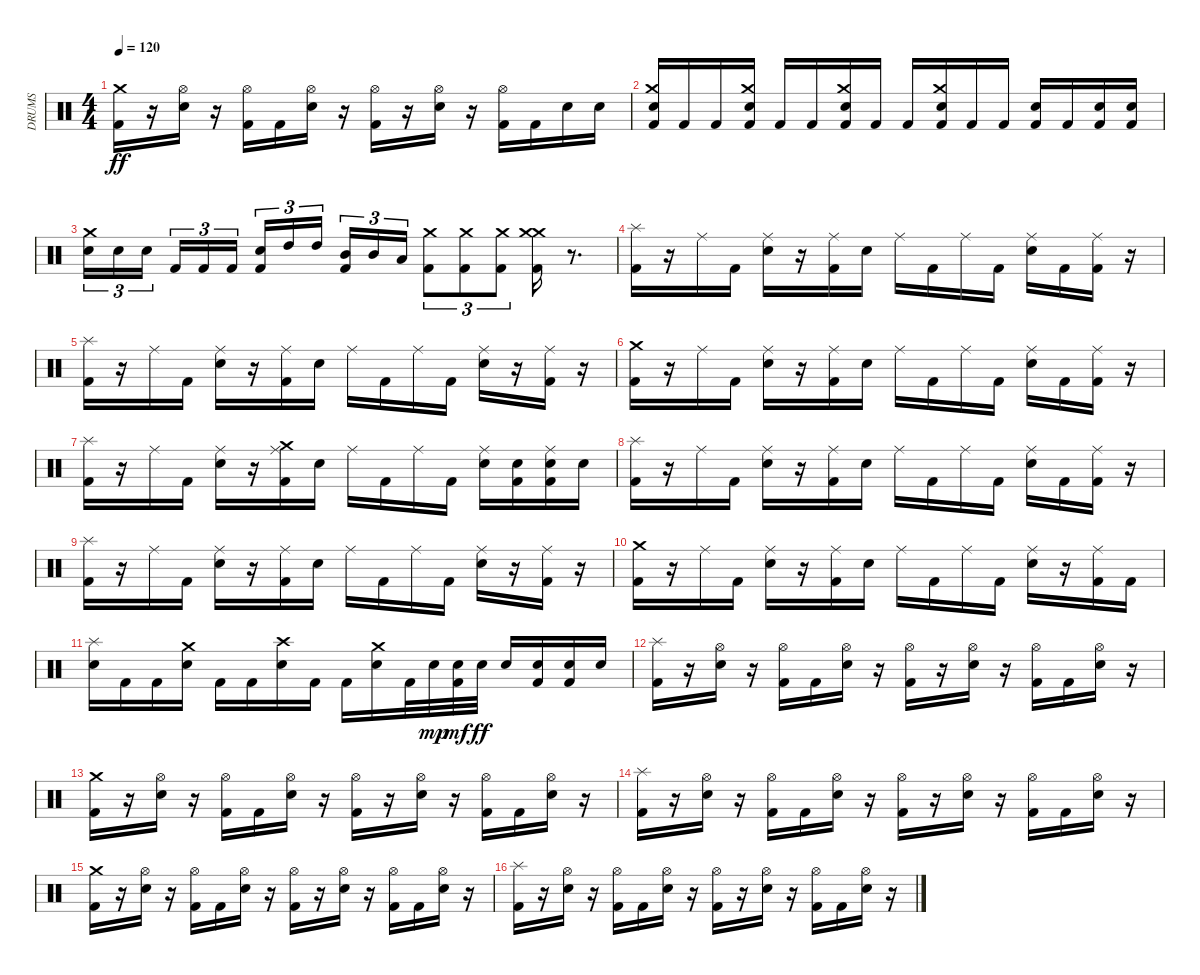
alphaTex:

\track ("DRUMS" "DRUMS") {instrument percussion}
\staff {score}
\articulation defaults
\ts (4 4)
\tempo 120
\clef neutral
\ks c
("Kick (hit) 2" "Crash medium (hit)").16{dy ff} r.16 ("Electric Snare (hit)" "Hi-Hat (open)").16 r.16 ("Kick (hit) 2" "Hi-Hat (open)").16 "Kick (hit) 2".16 ("Electric Snare (hit)" "Hi-Hat (open)").16 r.16 ("Kick (hit) 2" "Hi-Hat (open)").16 r.16 ("Electric Snare (hit)" "Hi-Hat (open)").16 r.16 ("Kick (hit) 2" "Hi-Hat (open)").16 "Kick (hit) 2".16 "Electric Snare (hit)".16 "Electric Snare (hit)".16 |
("Kick (hit) 2" "Electric Snare (hit)" "Crash medium (hit)").16 "Kick (hit) 2".16 "Kick (hit) 2".16 ("Kick (hit) 2" "Electric Snare (hit)" "Crash medium (hit)").16 "Kick (hit) 2".16 "Kick (hit) 2".16 ("Kick (hit) 2" "Electric Snare (hit)" "Crash medium (hit)").16 "Kick (hit) 2".16 "Kick (hit) 2".16 ("Kick (hit) 2" "Electric Snare (hit)" "Crash medium (hit)").16 "Kick (hit) 2".16 "Kick (hit) 2".16 ("Kick (hit) 2" "Electric Snare (hit)").16 "Kick (hit) 2".16 ("Kick (hit) 2" "Electric Snare (hit)").16 ("Kick (hit) 2" "Electric Snare (hit)").16 |
("Electric Snare (hit)" "Crash medium (hit)").16{tu (3 2)} "Electric Snare (hit)".16{tu (3 2)} "Electric Snare (hit)".16{tu (3 2) beam splitsecondary} "Kick (hit) 2".16{tu (3 2)} "Kick (hit) 2".16{tu (3 2)} "Kick (hit) 2".16{tu (3 2)} ("Kick (hit) 2" "Electric Snare (hit)").16{tu (3 2)} "High Tom (hit)".16{tu (3 2)} "High Tom (hit)".16{tu (3 2) beam splitsecondary} ("Kick (hit) 2" "Mid Tom (hit)").16{tu (3 2)} "Mid Tom (hit)".16{tu (3 2)} "Low Floor Tom (hit)".16{tu (3 2)} ("Kick (hit) 2" "Crash medium (hit)").8{tu (3 2)} ("Kick (hit) 2" "Crash medium (hit)").8{tu (3 2)} ("Kick (hit) 2" "Crash medium (hit)").8{tu (3 2)} ("Kick (hit) 2" "Crash medium (hit)" "Crash medium (hit)").16 r.8{d} |
("Kick (hit) 2" "Splash (hit)").16 r.16 "Ride (middle)".16 "Kick (hit) 2".16 ("Ride (middle)" "Electric Snare (hit)").16 r.16 ("Ride (middle)" "Kick (hit) 2").16 "Electric Snare (hit)".16 "Ride (middle)".16 "Kick (hit) 2".16 "Ride (middle)".16 "Kick (hit) 2".16 ("Ride (middle)" "Electric Snare (hit)").16 "Kick (hit) 2".16 ("Ride (middle)" "Kick (hit) 2").16 r.16 |
("Kick (hit) 2" "Splash (hit)").16 r.16 "Ride (middle)".16 "Kick (hit) 2".16 ("Ride (middle)" "Electric Snare (hit)").16 r.16 ("Ride (middle)" "Kick (hit) 2").16 "Electric Snare (hit)".16 "Ride (middle)".16 "Kick (hit) 2".16 "Ride (middle)".16 "Kick (hit) 2".16 ("Ride (middle)" "Electric Snare (hit)").16 r.16 ("Ride (middle)" "Kick (hit) 2").16 r.16 |
("Kick (hit) 2" "Crash medium (hit)").16 r.16 "Ride (middle)".16 "Kick (hit) 2".16 ("Ride (middle)" "Electric Snare (hit)").16 r.16 ("Ride (middle)" "Kick (hit) 2").16 "Electric Snare (hit)".16 "Ride (middle)".16 "Kick (hit) 2".16 "Ride (middle)".16 "Kick (hit) 2".16 ("Ride (middle)" "Electric Snare (hit)").16 "Kick (hit) 2".16 ("Ride (middle)" "Kick (hit) 2").16 r.16 |
("Kick (hit) 2" "Splash (hit)").16 r.16 "Ride (middle)".16 "Kick (hit) 2".16 ("Ride (middle)" "Electric Snare (hit)").16 r.16 ("Ride (middle)" "Kick (hit) 2" "Crash medium (hit)").16 "Electric Snare (hit)".16 "Ride (middle)".16 "Kick (hit) 2".16 "Ride (middle)".16 "Kick (hit) 2".16 ("Ride (middle)" "Electric Snare (hit)").16 ("Kick (hit) 2" "Electric Snare (hit)").16 ("Ride (middle)" "Kick (hit) 2" "Electric Snare (hit)").16 "Electric Snare (hit)".16 |
("Kick (hit) 2" "Splash (hit)").16 r.16 "Ride (middle)".16 "Kick (hit) 2".16 ("Ride (middle)" "Electric Snare (hit)").16 r.16 ("Ride (middle)" "Kick (hit) 2").16 "Electric Snare (hit)".16 "Ride (middle)".16 "Kick (hit) 2".16 "Ride (middle)".16 "Kick (hit) 2".16 ("Ride (middle)" "Electric Snare (hit)").16 "Kick (hit) 2".16 ("Ride (middle)" "Kick (hit) 2").16 r.16 |
("Kick (hit) 2" "Splash (hit)").16 r.16 "Ride (middle)".16 "Kick (hit) 2".16 ("Ride (middle)" "Electric Snare (hit)").16 r.16 ("Ride (middle)" "Kick (hit) 2").16 "Electric Snare (hit)".16 "Ride (middle)".16 "Kick (hit) 2".16 "Ride (middle)".16 "Kick (hit) 2".16 ("Ride (middle)" "Electric Snare (hit)").16 r.16 ("Ride (middle)" "Kick (hit) 2").16 r.16 |
("Kick (hit) 2" "Crash medium (hit)").16 r.16 "Ride (middle)".16 "Kick (hit) 2".16 ("Ride (middle)" "Electric Snare (hit)").16 r.16 ("Ride (middle)" "Kick (hit) 2").16 "Electric Snare (hit)".16 "Ride (middle)".16 "Kick (hit) 2".16 "Ride (middle)".16 "Kick (hit) 2".16 ("Ride (middle)" "Electric Snare (hit)").16 r.16 ("Ride (middle)" "Kick (hit) 2").16 "Kick (hit) 2".16 |
("Electric Snare (hit)" "Splash (hit)").16 "Kick (hit) 2".16 "Kick (hit) 2".16 ("Electric Snare (hit)" "Crash medium (hit)").16 "Kick (hit) 2".16 "Kick (hit) 2".16 ("Electric Snare (hit)" "Crash high (hit)").16 "Kick (hit) 2".16 "Kick (hit) 2".16 ("Electric Snare (hit)" "Crash medium (hit)").16 "Kick (hit) 2".32 "Electric Snare (hit)".32{dy mp} ("Kick (hit) 2" "Electric Snare (hit)").32{dy mf} "Electric Snare (hit)".32{dy ff} "Electric Snare (hit)".16 ("Kick (hit) 2" "Electric Snare (hit)").16 ("Kick (hit) 2" "Electric Snare (hit)").16 "Electric Snare (hit)".16 |
("Kick (hit) 2" "Splash (hit)").16 r.16 ("Electric Snare (hit)" "Hi-Hat (open)").16 r.16 ("Kick (hit) 2" "Hi-Hat (open)").16 "Kick (hit) 2".16 ("Electric Snare (hit)" "Hi-Hat (open)").16 r.16 ("Kick (hit) 2" "Hi-Hat (open)").16 r.16 ("Electric Snare (hit)" "Hi-Hat (open)").16 r.16 ("Kick (hit) 2" "Hi-Hat (open)").16 "Kick (hit) 2".16 ("Electric Snare (hit)" "Hi-Hat (open)").16 r.16 |
("Kick (hit) 2" "Crash medium (hit)").16 r.16 ("Electric Snare (hit)" "Hi-Hat (open)").16 r.16 ("Kick (hit) 2" "Hi-Hat (open)").16 "Kick (hit) 2".16 ("Electric Snare (hit)" "Hi-Hat (open)").16 r.16 ("Kick (hit) 2" "Hi-Hat (open)").16 r.16 ("Electric Snare (hit)" "Hi-Hat (open)").16 r.16 ("Kick (hit) 2" "Hi-Hat (open)").16 "Kick (hit) 2".16 ("Electric Snare (hit)" "Hi-Hat (open)").16 r.16 |
("Kick (hit) 2" "Splash (hit)").16 r.16 ("Electric Snare (hit)" "Hi-Hat (open)").16 r.16 ("Kick (hit) 2" "Hi-Hat (open)").16 "Kick (hit) 2".16 ("Electric Snare (hit)" "Hi-Hat (open)").16 r.16 ("Kick (hit) 2" "Hi-Hat (open)").16 r.16 ("Electric Snare (hit)" "Hi-Hat (open)").16 r.16 ("Kick (hit) 2" "Hi-Hat (open)").16 "Kick (hit) 2".16 ("Electric Snare (hit)" "Hi-Hat (open)").16 r.16 |
("Kick (hit) 2" "Crash medium (hit)").16 r.16 ("Electric Snare (hit)" "Hi-Hat (open)").16 r.16 ("Kick (hit) 2" "Hi-Hat (open)").16 "Kick (hit) 2".16 ("Electric Snare (hit)" "Hi-Hat (open)").16 r.16 ("Kick (hit) 2" "Hi-Hat (open)").16 r.16 ("Electric Snare (hit)" "Hi-Hat (open)").16 r.16 ("Kick (hit) 2" "Hi-Hat (open)").16 "Kick (hit) 2".16 ("Electric Snare (hit)" "Hi-Hat (open)").16 r.16 |
("Kick (hit) 2" "Splash (hit)").16 r.16 ("Electric Snare (hit)" "Hi-Hat (open)").16 r.16 ("Kick (hit) 2" "Hi-Hat (open)").16 "Kick (hit) 2".16 ("Electric Snare (hit)" "Hi-Hat (open)").16 r.16 ("Kick (hit) 2" "Hi-Hat (open)").16 r.16 ("Electric Snare (hit)" "Hi-Hat (open)").16 r.16 ("Kick (hit) 2" "Hi-Hat (open)").16 "Kick (hit) 2".16 ("Electric Snare (hit)" "Hi-Hat (open)").16 r.16
